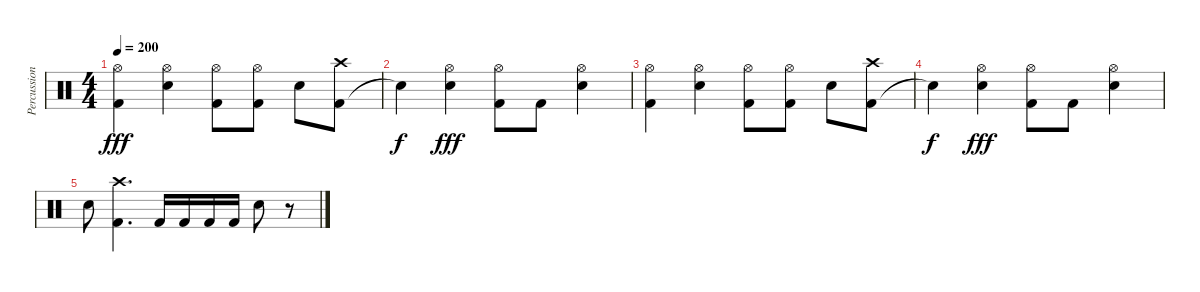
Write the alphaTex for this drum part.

\track ("Percussion" "Percussion") {instrument percussion}
\staff {score}
\articulation defaults
\ts (4 4)
\tempo 200
\clef neutral
\ks c
("Kick (hit) 2" "Hi-Hat (open)").4{dy fff} ("Snare (hit) 2" "Hi-Hat (open)").4 ("Kick (hit) 2" "Hi-Hat (open)").8 ("Kick (hit) 2" "Hi-Hat (open)").8 "Snare (hit) 2".8 ("Kick (hit) 2" "Crash high (hit)").8 |
"Snare (hit)"{t}.4{dy f} ("Snare (hit) 2" "Hi-Hat (open)").4{dy fff} ("Kick (hit) 2" "Hi-Hat (open)").8 "Kick (hit) 2".8 ("Snare (hit) 2" "Hi-Hat (open)").4 |
("Kick (hit) 2" "Hi-Hat (open)").4 ("Snare (hit) 2" "Hi-Hat (open)").4 ("Kick (hit) 2" "Hi-Hat (open)").8 ("Kick (hit) 2" "Hi-Hat (open)").8 "Snare (hit) 2".8 ("Kick (hit) 2" "Crash high (hit)").8 |
"Snare (hit)"{t}.4{dy f} ("Hi-Hat (open)" "Snare (hit) 2").4{dy fff} ("Hi-Hat (open)" "Kick (hit) 2").8 "Kick (hit) 2".8 ("Hi-Hat (open)" "Snare (hit) 2").4 |
"Snare (hit) 2".8 ("Crash high (hit)" "Kick (hit) 2").4{d} "Kick (hit) 2".16 "Kick (hit) 2".16 "Kick (hit) 2".16 "Kick (hit) 2".16 "Snare (hit) 2".8 r.8
